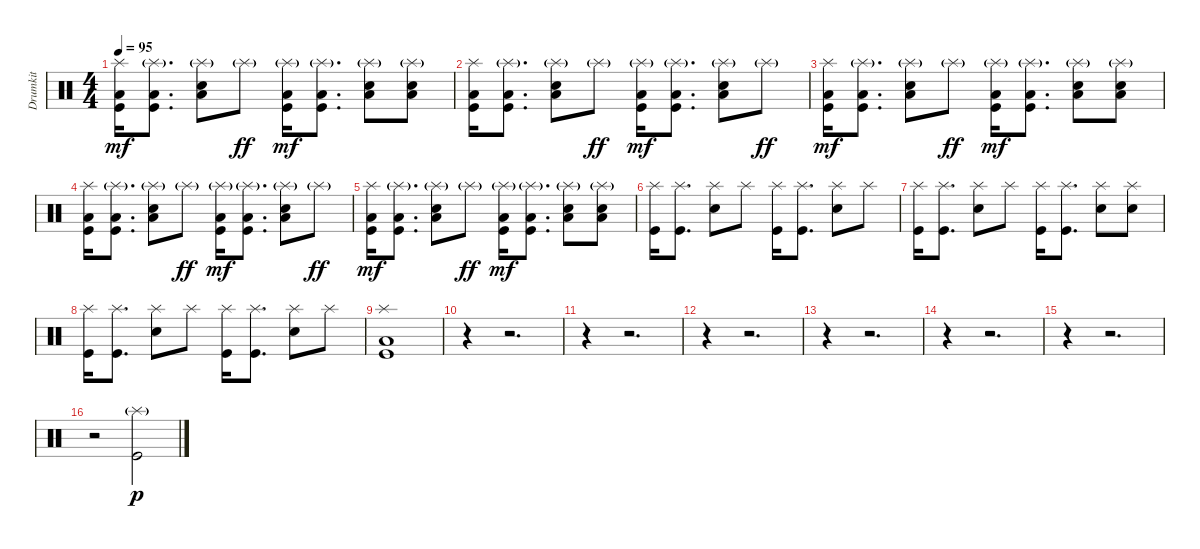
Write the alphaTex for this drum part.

\track ("Drumkit" "Drumkit") {instrument percussion}
\staff {score}
\articulation defaults
\ts (4 4)
\tempo 95
\clef neutral
\ks c
("Kick (hit)" "Low Floor Tom (hit)" "Splash (hit)").16{dy mf} ("Kick (hit)" "Low Floor Tom (hit)" "Splash (hit)"{g}).8{d} ("Snare (hit) 2" "Low Floor Tom (hit)" "Splash (hit)"{g}).8 "Splash (hit)"{g}.8{dy ff} ("Kick (hit)" "Low Floor Tom (hit)" "Splash (hit)"{g}).16{dy mf} ("Kick (hit)" "Low Floor Tom (hit)" "Splash (hit)"{g}).8{d} ("Snare (hit) 2" "Low Floor Tom (hit)" "Splash (hit)"{g}).8 ("Snare (hit) 2" "Splash (hit)"{g} "Low Floor Tom (hit)").8 |
("Kick (hit)" "Low Floor Tom (hit)" "Splash (hit)").16 ("Kick (hit)" "Low Floor Tom (hit)" "Splash (hit)"{g}).8{d} ("Snare (hit) 2" "Low Floor Tom (hit)" "Splash (hit)"{g}).8 "Splash (hit)"{g}.8{dy ff} ("Kick (hit)" "Low Floor Tom (hit)" "Splash (hit)"{g}).16{dy mf} ("Kick (hit)" "Low Floor Tom (hit)" "Splash (hit)"{g}).8{d} ("Snare (hit) 2" "Low Floor Tom (hit)" "Splash (hit)"{g}).8 "Splash (hit)"{g}.8{dy ff} |
("Kick (hit)" "Low Floor Tom (hit)" "Splash (hit)").16{dy mf} ("Kick (hit)" "Low Floor Tom (hit)" "Splash (hit)"{g}).8{d} ("Snare (hit) 2" "Low Floor Tom (hit)" "Splash (hit)"{g}).8 "Splash (hit)"{g}.8{dy ff} ("Kick (hit)" "Low Floor Tom (hit)" "Splash (hit)"{g}).16{dy mf} ("Kick (hit)" "Low Floor Tom (hit)" "Splash (hit)"{g}).8{d} ("Snare (hit) 2" "Low Floor Tom (hit)" "Splash (hit)"{g}).8 ("Snare (hit) 2" "Splash (hit)"{g} "Low Floor Tom (hit)").8 |
("Kick (hit)" "Low Floor Tom (hit)" "Splash (hit)").16 ("Kick (hit)" "Low Floor Tom (hit)" "Splash (hit)"{g}).8{d} ("Snare (hit) 2" "Low Floor Tom (hit)" "Splash (hit)"{g}).8 "Splash (hit)"{g}.8{dy ff} ("Kick (hit)" "Low Floor Tom (hit)" "Splash (hit)"{g}).16{dy mf} ("Kick (hit)" "Low Floor Tom (hit)" "Splash (hit)"{g}).8{d} ("Snare (hit) 2" "Low Floor Tom (hit)" "Splash (hit)"{g}).8 "Splash (hit)"{g}.8{dy ff} |
("Kick (hit)" "Low Floor Tom (hit)" "Splash (hit)").16{dy mf} ("Kick (hit)" "Low Floor Tom (hit)" "Splash (hit)"{g}).8{d} ("Snare (hit) 2" "Low Floor Tom (hit)" "Splash (hit)"{g}).8 "Splash (hit)"{g}.8{dy ff} ("Kick (hit)" "Low Floor Tom (hit)" "Splash (hit)"{g}).16{dy mf} ("Kick (hit)" "Low Floor Tom (hit)" "Splash (hit)"{g}).8{d} ("Snare (hit) 2" "Low Floor Tom (hit)" "Splash (hit)"{g}).8 ("Snare (hit) 2" "Splash (hit)"{g} "Low Floor Tom (hit)").8 |
("Kick (hit)" "Splash (hit)").16 ("Kick (hit)" "Splash (hit)").8{d} ("Snare (hit) 2" "Splash (hit)").8 "Splash (hit)".8 ("Kick (hit)" "Splash (hit)").16 ("Kick (hit)" "Splash (hit)").8{d} ("Snare (hit) 2" "Splash (hit)").8 "Splash (hit)".8 |
("Kick (hit)" "Splash (hit)").16 ("Kick (hit)" "Splash (hit)").8{d} ("Snare (hit) 2" "Splash (hit)").8 "Splash (hit)".8 ("Kick (hit)" "Splash (hit)").16 ("Kick (hit)" "Splash (hit)").8{d} ("Snare (hit) 2" "Splash (hit)").8 ("Splash (hit)" "Snare (hit) 2").8 |
("Kick (hit)" "Splash (hit)").16 ("Kick (hit)" "Splash (hit)").8{d} ("Snare (hit) 2" "Splash (hit)").8 "Splash (hit)".8 ("Kick (hit)" "Splash (hit)").16 ("Kick (hit)" "Splash (hit)").8{d} ("Snare (hit) 2" "Splash (hit)").8 "Splash (hit)".8 |
("Kick (hit)" "Low Floor Tom (hit)" "Splash (hit)").1 |
r.4 r.2{d} |
r.4 r.2{d} |
r.4 r.2{d} |
r.4 r.2{d} |
r.4 r.2{d} |
r.4 r.2{d} |
r.2 ("Kick (hit)" "Splash (hit)"{g}).2{dy p}
